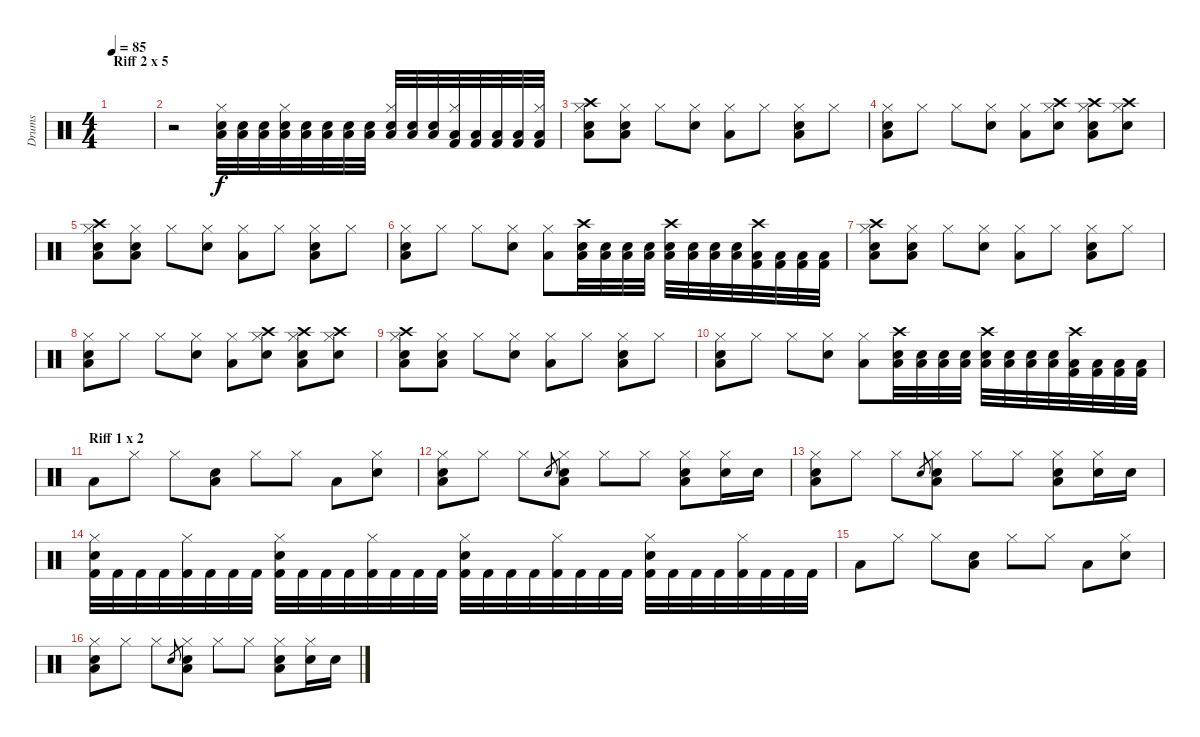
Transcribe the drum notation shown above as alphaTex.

\track ("Drums" "Drums") {instrument percussion}
\staff {score}
\articulation defaults
\ts (4 4)
\section ("" "Riff 2 x 5")
\tempo 85
\clef neutral
\ks c
|
r.2 ("Low Tom (hit)" "Electric Snare (hit)" "Hi-Hat (closed)").32 ("Low Tom (hit)" "Electric Snare (hit)").32 ("Low Tom (hit)" "Electric Snare (hit)").32 ("Low Tom (hit)" "Electric Snare (hit)" "Hi-Hat (closed)").32 ("Low Tom (hit)" "Electric Snare (hit)").32 ("Low Tom (hit)" "Snare (hit) 2").32 ("Low Tom (hit)" "Snare (hit) 2").32 ("Low Tom (hit)" "Snare (hit) 2").32 ("Low Tom (hit)" "Snare (hit) 2" "Hi-Hat (closed)").32 ("Low Tom (hit)" "Snare (hit) 2").32 ("Low Tom (hit)" "Snare (hit) 2").32 ("Low Tom (hit)" "Kick (hit) 2" "Hi-Hat (closed)").32 ("Low Tom (hit)" "Kick (hit) 2").32 ("Low Tom (hit)" "Kick (hit) 2").32 ("Low Tom (hit)" "Kick (hit) 2").32 ("Low Tom (hit)" "Kick (hit) 2" "Hi-Hat (closed)").32 |
("Low Tom (hit)" "Snare (hit) 2" "Hi-Hat (closed)" "Crash high (hit)").8 ("Low Tom (hit)" "Snare (hit) 2" "Hi-Hat (closed)").8 "Hi-Hat (closed)".8 ("Snare (hit) 2" "Hi-Hat (closed)").8 ("Low Tom (hit)" "Hi-Hat (closed)").8 "Hi-Hat (closed)".8 ("Low Tom (hit)" "Snare (hit) 2" "Hi-Hat (closed)").8 "Hi-Hat (closed)".8 |
("Low Tom (hit)" "Snare (hit) 2" "Hi-Hat (closed)").8 "Hi-Hat (closed)".8 "Hi-Hat (closed)".8 ("Snare (hit) 2" "Hi-Hat (closed)").8 ("Low Tom (hit)" "Hi-Hat (closed)").8 ("Crash high (hit)" "Snare (hit) 2" "Hi-Hat (closed)").8 ("Low Tom (hit)" "Snare (hit) 2" "Hi-Hat (closed)" "Crash high (hit)").8 ("Crash high (hit)" "Snare (hit) 2" "Hi-Hat (closed)").8 |
("Low Tom (hit)" "Snare (hit) 2" "Hi-Hat (closed)" "Crash high (hit)").8 ("Low Tom (hit)" "Snare (hit) 2" "Hi-Hat (closed)").8 "Hi-Hat (closed)".8 ("Snare (hit) 2" "Hi-Hat (closed)").8 ("Low Tom (hit)" "Hi-Hat (closed)").8 "Hi-Hat (closed)".8 ("Low Tom (hit)" "Snare (hit) 2" "Hi-Hat (closed)").8 "Hi-Hat (closed)".8 |
("Low Tom (hit)" "Snare (hit) 2" "Hi-Hat (closed)").8 "Hi-Hat (closed)".8 "Hi-Hat (closed)".8 ("Snare (hit) 2" "Hi-Hat (closed)").8 ("Low Tom (hit)" "Hi-Hat (closed)").8 ("Low Tom (hit)" "Electric Snare (hit)" "Crash high (hit)").32 ("Low Tom (hit)" "Electric Snare (hit)").32 ("Low Tom (hit)" "Electric Snare (hit)").32 ("Low Tom (hit)" "Electric Snare (hit)").32 ("Low Tom (hit)" "Snare (hit) 2" "Crash high (hit)").32 ("Low Tom (hit)" "Snare (hit) 2").32 ("Low Tom (hit)" "Snare (hit) 2").32 ("Low Tom (hit)" "Snare (hit) 2").32 ("Low Tom (hit)" "Kick (hit) 2" "Crash high (hit)").32 ("Low Tom (hit)" "Kick (hit) 2").32 ("Low Tom (hit)" "Kick (hit) 2").32 ("Low Tom (hit)" "Kick (hit) 2").32 |
("Low Tom (hit)" "Snare (hit) 2" "Hi-Hat (closed)" "Crash high (hit)").8 ("Low Tom (hit)" "Snare (hit) 2" "Hi-Hat (closed)").8 "Hi-Hat (closed)".8 ("Snare (hit) 2" "Hi-Hat (closed)").8 ("Low Tom (hit)" "Hi-Hat (closed)").8 "Hi-Hat (closed)".8 ("Low Tom (hit)" "Snare (hit) 2" "Hi-Hat (closed)").8 "Hi-Hat (closed)".8 |
("Low Tom (hit)" "Snare (hit) 2" "Hi-Hat (closed)").8 "Hi-Hat (closed)".8 "Hi-Hat (closed)".8 ("Snare (hit) 2" "Hi-Hat (closed)").8 ("Low Tom (hit)" "Hi-Hat (closed)").8 ("Crash high (hit)" "Snare (hit) 2" "Hi-Hat (closed)").8 ("Low Tom (hit)" "Snare (hit) 2" "Hi-Hat (closed)" "Crash high (hit)").8 ("Crash high (hit)" "Snare (hit) 2" "Hi-Hat (closed)").8 |
("Low Tom (hit)" "Snare (hit) 2" "Hi-Hat (closed)" "Crash high (hit)").8 ("Low Tom (hit)" "Snare (hit) 2" "Hi-Hat (closed)").8 "Hi-Hat (closed)".8 ("Snare (hit) 2" "Hi-Hat (closed)").8 ("Low Tom (hit)" "Hi-Hat (closed)").8 "Hi-Hat (closed)".8 ("Low Tom (hit)" "Snare (hit) 2" "Hi-Hat (closed)").8 "Hi-Hat (closed)".8 |
("Low Tom (hit)" "Snare (hit) 2" "Hi-Hat (closed)").8 "Hi-Hat (closed)".8 "Hi-Hat (closed)".8 ("Snare (hit) 2" "Hi-Hat (closed)").8 ("Low Tom (hit)" "Hi-Hat (closed)").8 ("Low Tom (hit)" "Electric Snare (hit)" "Crash high (hit)").32 ("Low Tom (hit)" "Electric Snare (hit)").32 ("Low Tom (hit)" "Electric Snare (hit)").32 ("Low Tom (hit)" "Electric Snare (hit)").32 ("Low Tom (hit)" "Snare (hit) 2" "Crash high (hit)").32 ("Low Tom (hit)" "Snare (hit) 2").32 ("Low Tom (hit)" "Snare (hit) 2").32 ("Low Tom (hit)" "Snare (hit) 2").32 ("Low Tom (hit)" "Kick (hit) 2" "Crash high (hit)").32 ("Low Tom (hit)" "Kick (hit) 2").32 ("Low Tom (hit)" "Kick (hit) 2").32 ("Low Tom (hit)" "Kick (hit) 2").32 |
\section ("" "Riff 1 x 2")
"Low Tom (hit)".8 "Hi-Hat (closed)".8 "Hi-Hat (closed)".8 ("Low Tom (hit)" "Snare (hit) 2").8 "Hi-Hat (closed)".8 "Hi-Hat (closed)".8 "Low Tom (hit)".8 ("Hi-Hat (closed)" "Snare (hit) 2").8 |
("Low Tom (hit)" "Snare (hit) 2" "Hi-Hat (closed)").8 "Hi-Hat (closed)".8 "Hi-Hat (closed)".8 "Snare (hit) 2".8{gr} ("Low Tom (hit)" "Snare (hit) 2" "Hi-Hat (closed)").8 "Hi-Hat (closed)".8 "Hi-Hat (closed)".8 ("Low Tom (hit)" "Snare (hit) 2" "Hi-Hat (closed)").8 ("Snare (hit) 2" "Hi-Hat (closed)").16 "Snare (hit) 2".16 |
("Low Tom (hit)" "Snare (hit) 2" "Hi-Hat (closed)").8 "Hi-Hat (closed)".8 "Hi-Hat (closed)".8 "Snare (hit) 2".8{gr} ("Low Tom (hit)" "Snare (hit) 2" "Hi-Hat (closed)").8 "Hi-Hat (closed)".8 "Hi-Hat (closed)".8 ("Low Tom (hit)" "Snare (hit) 2" "Hi-Hat (closed)").8 ("Snare (hit) 2" "Hi-Hat (closed)").16 "Snare (hit) 2".16 |
("Kick (hit) 2" "Snare (hit) 2" "Hi-Hat (closed)").32 "Kick (hit) 2".32 "Kick (hit) 2".32 "Kick (hit) 2".32 ("Kick (hit) 2" "Hi-Hat (closed)").32 "Kick (hit) 2".32 "Kick (hit) 2".32 "Kick (hit) 2".32 ("Kick (hit) 2" "Snare (hit) 2" "Hi-Hat (closed)").32 "Kick (hit) 2".32 "Kick (hit) 2".32 "Kick (hit) 2".32 ("Kick (hit) 2" "Hi-Hat (closed)").32 "Kick (hit) 2".32 "Kick (hit) 2".32 "Kick (hit) 2".32 ("Kick (hit) 2" "Snare (hit) 2" "Hi-Hat (closed)").32 "Kick (hit) 2".32 "Kick (hit) 2".32 "Kick (hit) 2".32 ("Kick (hit) 2" "Hi-Hat (closed)").32 "Kick (hit) 2".32 "Kick (hit) 2".32 "Kick (hit) 2".32 ("Kick (hit) 2" "Snare (hit) 2" "Hi-Hat (closed)").32 "Kick (hit) 2".32 "Kick (hit) 2".32 "Kick (hit) 2".32 ("Kick (hit) 2" "Hi-Hat (closed)").32 "Kick (hit) 2".32 "Kick (hit) 2".32 "Kick (hit) 2".32 |
"Low Tom (hit)".8 "Hi-Hat (closed)".8 "Hi-Hat (closed)".8 ("Low Tom (hit)" "Snare (hit) 2").8 "Hi-Hat (closed)".8 "Hi-Hat (closed)".8 "Low Tom (hit)".8 ("Hi-Hat (closed)" "Snare (hit) 2").8 |
("Low Tom (hit)" "Snare (hit) 2" "Hi-Hat (closed)").8 "Hi-Hat (closed)".8 "Hi-Hat (closed)".8 "Snare (hit) 2".8{gr} ("Low Tom (hit)" "Snare (hit) 2" "Hi-Hat (closed)").8 "Hi-Hat (closed)".8 "Hi-Hat (closed)".8 ("Low Tom (hit)" "Snare (hit) 2" "Hi-Hat (closed)").8 ("Snare (hit) 2" "Hi-Hat (closed)").16 "Snare (hit) 2".16
